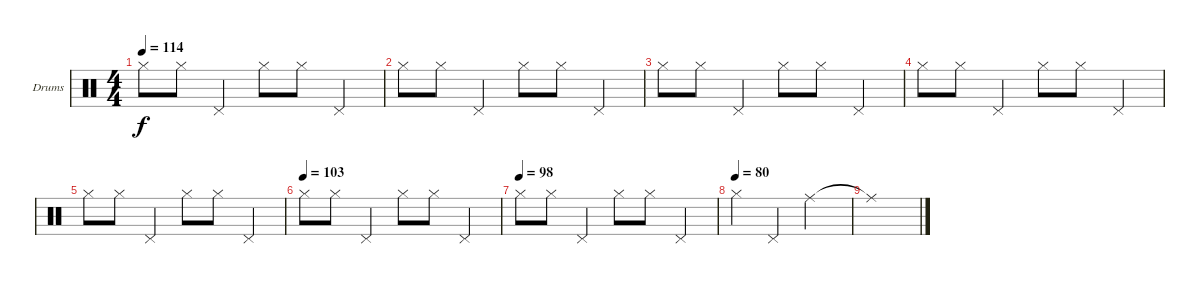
\defaultSystemsLayout 4
\bracketExtendMode groupsimilarinstruments
\firstSystemTrackNameOrientation horizontal
\otherSystemsTrackNameOrientation horizontal
\track ("Е. Кулаков" "Drums") {instrument percussion}
\staff {score}
\articulation defaults
\ts (4 4)
\tempo 114
\clef neutral
\ks c "Hi-Hat (closed)".8{dy f} "Hi-Hat (closed)".8 "Pedal Hi-Hat (hit)".4 "Hi-Hat (closed)".8 "Hi-Hat (closed)".8 "Pedal Hi-Hat (hit)".4
|
"Hi-Hat (closed)".8 "Hi-Hat (closed)".8 "Pedal Hi-Hat (hit)".4 "Hi-Hat (closed)".8 "Hi-Hat (closed)".8 "Pedal Hi-Hat (hit)".4 |
"Hi-Hat (closed)".8 "Hi-Hat (closed)".8 "Pedal Hi-Hat (hit)".4 "Hi-Hat (closed)".8 "Hi-Hat (closed)".8 "Pedal Hi-Hat (hit)".4 |
"Hi-Hat (closed)".8 "Hi-Hat (closed)".8 "Pedal Hi-Hat (hit)".4 "Hi-Hat (closed)".8 "Hi-Hat (closed)".8 "Pedal Hi-Hat (hit)".4 |
"Hi-Hat (closed)".8 "Hi-Hat (closed)".8 "Pedal Hi-Hat (hit)".4 "Hi-Hat (closed)".8 "Hi-Hat (closed)".8 "Pedal Hi-Hat (hit)".4 |
\tempo (103)
"Hi-Hat (closed)".8 "Hi-Hat (closed)".8 "Pedal Hi-Hat (hit)".4 "Hi-Hat (closed)".8 "Hi-Hat (closed)".8 "Pedal Hi-Hat (hit)".4 |
\tempo (98)
"Hi-Hat (closed)".8 "Hi-Hat (closed)".8 "Pedal Hi-Hat (hit)".4 "Hi-Hat (closed)".8 "Hi-Hat (closed)".8 "Pedal Hi-Hat (hit)".4 |
\tempo (80)
"Hi-Hat (closed)".4 "Pedal Hi-Hat (hit)".4 "Ride (middle)".2 |
"Ride (middle)"{t}.1
